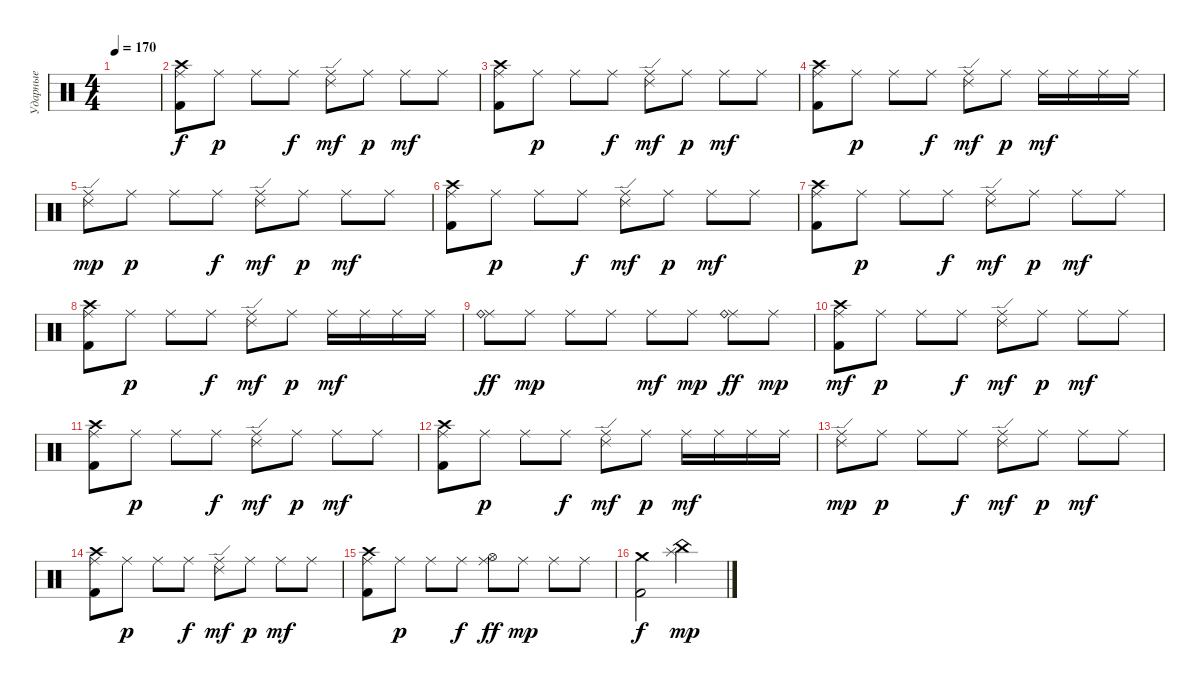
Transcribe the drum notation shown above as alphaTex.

\track ("Ударные" "Ударные") {instrument percussion}
\staff {score}
\articulation defaults
\ts (4 4)
\tempo 170
\clef neutral
\ks c
|
("Crash high (hit)" "Ride (middle)" "Kick (hit) 2").8 "Ride (middle)".8{dy p} "Ride (middle)".8 "Ride (middle)".8{dy f} ("Ride (middle)" "Ride (edge) 2").8{dy mf} "Ride (middle)".8{dy p} "Ride (middle)".8{dy mf} "Ride (middle)".8 |
("Crash high (hit)" "Ride (middle)" "Kick (hit) 2").8 "Ride (middle)".8{dy p} "Ride (middle)".8 "Ride (middle)".8{dy f} ("Ride (middle)" "Ride (edge) 2").8{dy mf} "Ride (middle)".8{dy p} "Ride (middle)".8{dy mf} "Ride (middle)".8 |
("Crash high (hit)" "Ride (middle)" "Kick (hit) 2").8 "Ride (middle)".8{dy p} "Ride (middle)".8 "Ride (middle)".8{dy f} ("Ride (middle)" "Ride (edge) 2").8{dy mf} "Ride (middle)".8{dy p} "Ride (middle)".16{dy mf} "Ride (middle)".16 "Ride (middle)".16 "Ride (middle)".16 |
("Ride (middle)" "Ride (edge) 2").8{dy mp} "Ride (middle)".8{dy p} "Ride (middle)".8 "Ride (middle)".8{dy f} ("Ride (middle)" "Ride (edge) 2").8{dy mf} "Ride (middle)".8{dy p} "Ride (middle)".8{dy mf} "Ride (middle)".8 |
("Crash high (hit)" "Ride (middle)" "Kick (hit) 2").8 "Ride (middle)".8{dy p} "Ride (middle)".8 "Ride (middle)".8{dy f} ("Ride (middle)" "Ride (edge) 2").8{dy mf} "Ride (middle)".8{dy p} "Ride (middle)".8{dy mf} "Ride (middle)".8 |
("Crash high (hit)" "Ride (middle)" "Kick (hit) 2").8 "Ride (middle)".8{dy p} "Ride (middle)".8 "Ride (middle)".8{dy f} ("Ride (middle)" "Ride (edge) 2").8{dy mf} "Ride (middle)".8{dy p} "Ride (middle)".8{dy mf} "Ride (middle)".8 |
("Crash high (hit)" "Ride (middle)" "Kick (hit) 2").8 "Ride (middle)".8{dy p} "Ride (middle)".8 "Ride (middle)".8{dy f} ("Ride (middle)" "Ride (edge) 2").8{dy mf} "Ride (middle)".8{dy p} "Ride (middle)".16{dy mf} "Ride (middle)".16 "Ride (middle)".16 "Ride (middle)".16 |
("Ride (middle)" "Ride (bell)").8{dy ff} "Ride (middle)".8{dy mp} "Ride (middle)".8 "Ride (middle)".8 "Ride (middle)".8{dy mf} "Ride (middle)".8{dy mp} ("Ride (middle)" "Ride (bell)").8{dy ff} "Ride (middle)".8{dy mp} |
("Crash high (hit)" "Ride (middle)" "Kick (hit) 2").8{dy mf} "Ride (middle)".8{dy p} "Ride (middle)".8 "Ride (middle)".8{dy f} ("Ride (middle)" "Ride (edge) 2").8{dy mf} "Ride (middle)".8{dy p} "Ride (middle)".8{dy mf} "Ride (middle)".8 |
("Crash high (hit)" "Ride (middle)" "Kick (hit) 2").8 "Ride (middle)".8{dy p} "Ride (middle)".8 "Ride (middle)".8{dy f} ("Ride (middle)" "Ride (edge) 2").8{dy mf} "Ride (middle)".8{dy p} "Ride (middle)".8{dy mf} "Ride (middle)".8 |
("Crash high (hit)" "Ride (middle)" "Kick (hit) 2").8 "Ride (middle)".8{dy p} "Ride (middle)".8 "Ride (middle)".8{dy f} ("Ride (middle)" "Ride (edge) 2").8{dy mf} "Ride (middle)".8{dy p} "Ride (middle)".16{dy mf} "Ride (middle)".16 "Ride (middle)".16 "Ride (middle)".16 |
("Ride (middle)" "Ride (edge) 2").8{dy mp} "Ride (middle)".8{dy p} "Ride (middle)".8 "Ride (middle)".8{dy f} ("Ride (middle)" "Ride (edge) 2").8{dy mf} "Ride (middle)".8{dy p} "Ride (middle)".8{dy mf} "Ride (middle)".8 |
("Crash high (hit)" "Ride (middle)" "Kick (hit) 2").8 "Ride (middle)".8{dy p} "Ride (middle)".8 "Ride (middle)".8{dy f} ("Ride (middle)" "Ride (edge) 2").8{dy mf} "Ride (middle)".8{dy p} "Ride (middle)".8{dy mf} "Ride (middle)".8 |
("Crash high (hit)" "Ride (middle)" "Kick (hit) 2").8 "Ride (middle)".8{dy p} "Ride (middle)".8 "Ride (middle)".8{dy f} ("Hi-Hat (open)" "Ride (middle)").8{dy ff} "Ride (middle)".8{dy mp} "Ride (middle)".8 "Ride (middle)".8 |
("Crash medium (hit)" "Kick (hit) 2").2{dy f} ("China (hit)" "Splash (hit)").2{dy mp}
